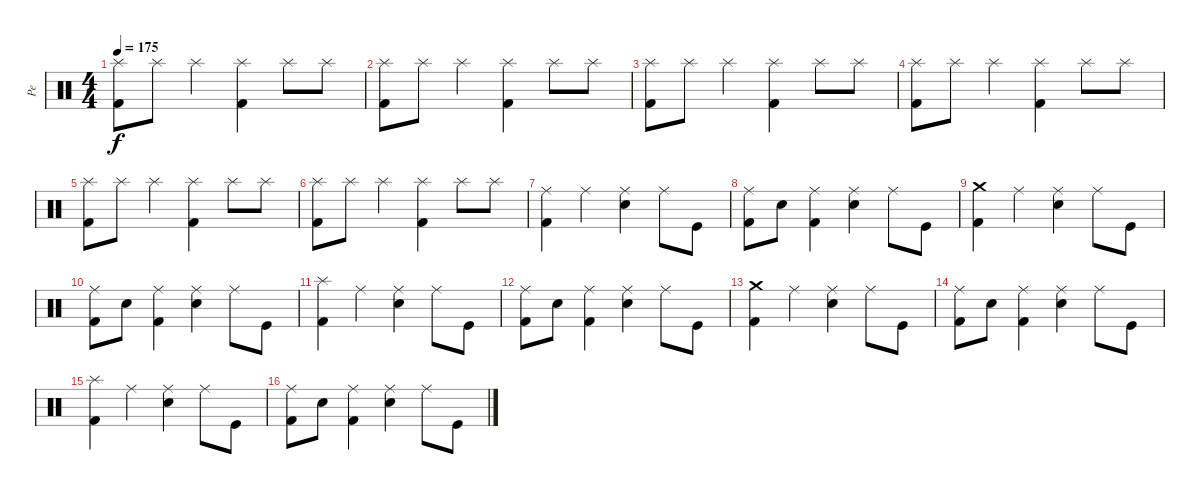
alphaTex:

\track ("Pe" "Pe") {instrument percussion}
\staff {score}
\articulation defaults
\ts (4 4)
\tempo 175
\clef neutral
\ks c
("Kick (hit) 2" "Splash (hit)").8{dy f} "Splash (hit)".8 "Splash (hit)".4 ("Kick (hit) 2" "Splash (hit)").4 "Splash (hit)".8 "Splash (hit)".8 |
("Kick (hit) 2" "Splash (hit)").8 "Splash (hit)".8 "Splash (hit)".4 ("Kick (hit) 2" "Splash (hit)").4 "Splash (hit)".8 "Splash (hit)".8 |
("Kick (hit) 2" "Splash (hit)").8 "Splash (hit)".8 "Splash (hit)".4 ("Kick (hit) 2" "Splash (hit)").4 "Splash (hit)".8 "Splash (hit)".8 |
("Kick (hit) 2" "Splash (hit)").8 "Splash (hit)".8 "Splash (hit)".4 ("Kick (hit) 2" "Splash (hit)").4 "Splash (hit)".8 "Splash (hit)".8 |
("Kick (hit) 2" "Splash (hit)").8 "Splash (hit)".8 "Splash (hit)".4 ("Kick (hit) 2" "Splash (hit)").4 "Splash (hit)".8 "Splash (hit)".8 |
("Kick (hit) 2" "Splash (hit)").8 "Splash (hit)".8 "Splash (hit)".4 ("Kick (hit) 2" "Splash (hit)").4 "Splash (hit)".8 "Splash (hit)".8 |
("Kick (hit) 2" "Ride (middle)").4{volume 13} "Ride (middle)".4 ("Electric Snare (hit)" "Ride (middle)").4 "Ride (middle)".8 "Kick (hit)".8 |
("Kick (hit) 2" "Ride (middle)").8 "Electric Snare (hit)".8 ("Kick (hit) 2" "Ride (middle)").4 ("Electric Snare (hit)" "Ride (middle)").4 "Ride (middle)".8 "Kick (hit)".8 |
("Kick (hit) 2" "Crash medium (hit)").4 "Ride (middle)".4 ("Electric Snare (hit)" "Ride (middle)").4 "Ride (middle)".8 "Kick (hit)".8 |
("Kick (hit) 2" "Ride (middle)").8 "Electric Snare (hit)".8 ("Kick (hit) 2" "Ride (middle)").4 ("Electric Snare (hit)" "Ride (middle)").4 "Ride (middle)".8 "Kick (hit)".8 |
("Kick (hit) 2" "Splash (hit)").4 "Ride (middle)".4 ("Electric Snare (hit)" "Ride (middle)").4 "Ride (middle)".8 "Kick (hit)".8 |
("Kick (hit) 2" "Ride (middle)").8 "Electric Snare (hit)".8 ("Kick (hit) 2" "Ride (middle)").4 ("Electric Snare (hit)" "Ride (middle)").4 "Ride (middle)".8 "Kick (hit)".8 |
("Kick (hit) 2" "Crash medium (hit)").4 "Ride (middle)".4 ("Electric Snare (hit)" "Ride (middle)").4 "Ride (middle)".8 "Kick (hit)".8 |
("Kick (hit) 2" "Ride (middle)").8 "Electric Snare (hit)".8 ("Kick (hit) 2" "Ride (middle)").4 ("Electric Snare (hit)" "Ride (middle)").4 "Ride (middle)".8 "Kick (hit)".8 |
("Kick (hit) 2" "Splash (hit)").4 "Ride (middle)".4 ("Electric Snare (hit)" "Ride (middle)").4 "Ride (middle)".8 "Kick (hit)".8 |
("Kick (hit) 2" "Ride (middle)").8 "Electric Snare (hit)".8 ("Kick (hit) 2" "Ride (middle)").4 ("Electric Snare (hit)" "Ride (middle)").4 "Ride (middle)".8 "Kick (hit)".8
